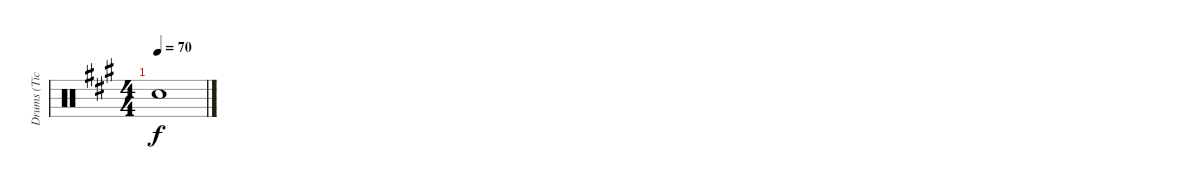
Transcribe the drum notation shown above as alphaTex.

\track ("Drums (Tico Torres)" "Drums (Tic") {instrument percussion}
\staff {score}
\articulation defaults
\ts (4 4)
\tempo 70
\clef neutral
\ks a "Snare (hit)"{t}.1{dy f}
